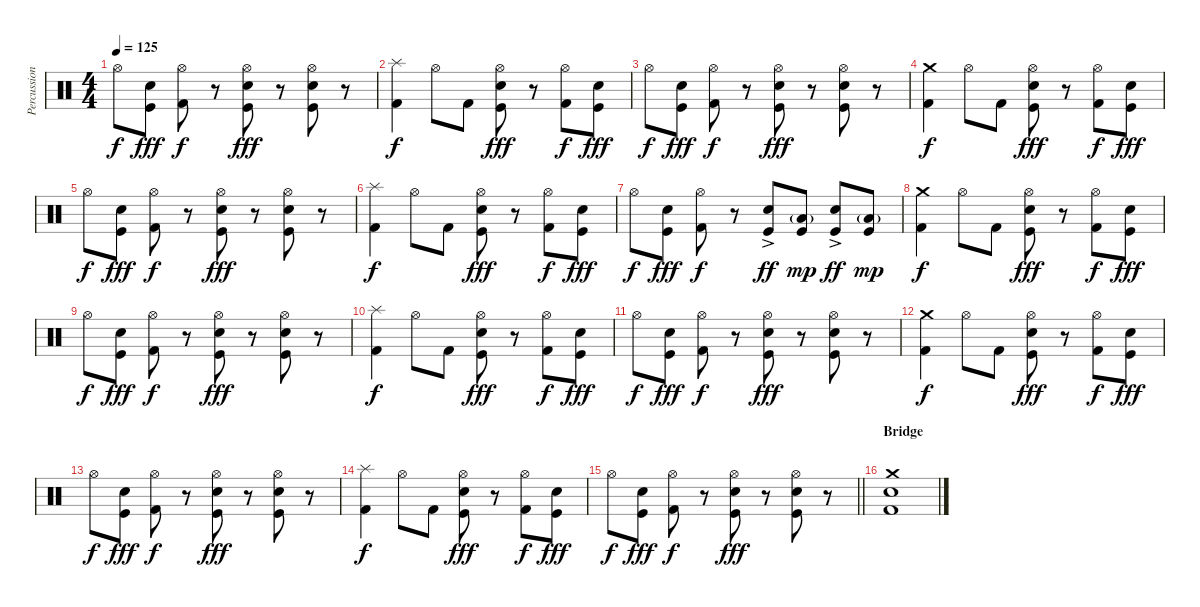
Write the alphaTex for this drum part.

\track ("Percussion" "Percussion") {instrument percussion}
\staff {score}
\articulation defaults
\ts (4 4)
\tempo 125
\clef neutral
\ks c "Hi-Hat (open)".8{dy f}
("Electric Snare (hit)" "Kick (hit)").8{dy fff} ("Hi-Hat (open)" "Kick (hit) 2").8{dy f} r.8 ("Hi-Hat (open)" "Electric Snare (hit)" "Kick (hit)").8{dy fff} r.8 ("Hi-Hat (open)" "Electric Snare (hit)" "Kick (hit)").8 r.8 |
("Splash (hit)" "Kick (hit) 2").4{dy f} "Hi-Hat (open)".8 "Kick (hit) 2".8 ("Hi-Hat (open)" "Electric Snare (hit)" "Kick (hit)").8{dy fff} r.8 ("Hi-Hat (open)" "Kick (hit) 2").8{dy f} ("Electric Snare (hit)" "Kick (hit)").8{dy fff} |
"Hi-Hat (open)".8{dy f} ("Electric Snare (hit)" "Kick (hit)").8{dy fff} ("Hi-Hat (open)" "Kick (hit) 2").8{dy f} r.8 ("Hi-Hat (open)" "Electric Snare (hit)" "Kick (hit)").8{dy fff} r.8 ("Hi-Hat (open)" "Electric Snare (hit)" "Kick (hit)").8 r.8 |
("Crash medium (hit)" "Kick (hit) 2").4{dy f} "Hi-Hat (open)".8 "Kick (hit) 2".8 ("Hi-Hat (open)" "Electric Snare (hit)" "Kick (hit)").8{dy fff} r.8 ("Hi-Hat (open)" "Kick (hit) 2").8{dy f} ("Electric Snare (hit)" "Kick (hit)").8{dy fff} |
"Hi-Hat (open)".8{dy f} ("Electric Snare (hit)" "Kick (hit)").8{dy fff} ("Hi-Hat (open)" "Kick (hit) 2").8{dy f} r.8 ("Hi-Hat (open)" "Electric Snare (hit)" "Kick (hit)").8{dy fff} r.8 ("Hi-Hat (open)" "Electric Snare (hit)" "Kick (hit)").8 r.8 |
("Splash (hit)" "Kick (hit) 2").4{dy f} "Hi-Hat (open)".8 "Kick (hit) 2".8 ("Hi-Hat (open)" "Electric Snare (hit)" "Kick (hit)").8{dy fff} r.8 ("Hi-Hat (open)" "Kick (hit) 2").8{dy f} ("Electric Snare (hit)" "Kick (hit)").8{dy fff} |
"Hi-Hat (open)".8{dy f} ("Electric Snare (hit)" "Kick (hit)").8{dy fff} ("Hi-Hat (open)" "Kick (hit) 2").8{dy f} r.8 ("Snare (hit) 2"{ac} "Kick (hit)").8{dy ff} ("Low Floor Tom (hit)"{g} "Kick (hit)").8{dy mp} ("Snare (hit) 2"{ac} "Kick (hit)").8{dy ff} ("Low Floor Tom (hit)"{g} "Kick (hit)").8{dy mp} |
("Crash medium (hit)" "Kick (hit) 2").4{dy f} "Hi-Hat (open)".8 "Kick (hit) 2".8 ("Hi-Hat (open)" "Electric Snare (hit)" "Kick (hit)").8{dy fff} r.8 ("Hi-Hat (open)" "Kick (hit) 2").8{dy f} ("Electric Snare (hit)" "Kick (hit)").8{dy fff} |
"Hi-Hat (open)".8{dy f} ("Electric Snare (hit)" "Kick (hit)").8{dy fff} ("Hi-Hat (open)" "Kick (hit) 2").8{dy f} r.8 ("Hi-Hat (open)" "Electric Snare (hit)" "Kick (hit)").8{dy fff} r.8 ("Hi-Hat (open)" "Electric Snare (hit)" "Kick (hit)").8 r.8 |
("Splash (hit)" "Kick (hit) 2").4{dy f} "Hi-Hat (open)".8 "Kick (hit) 2".8 ("Hi-Hat (open)" "Electric Snare (hit)" "Kick (hit)").8{dy fff} r.8 ("Hi-Hat (open)" "Kick (hit) 2").8{dy f} ("Electric Snare (hit)" "Kick (hit)").8{dy fff} |
"Hi-Hat (open)".8{dy f} ("Electric Snare (hit)" "Kick (hit)").8{dy fff} ("Hi-Hat (open)" "Kick (hit) 2").8{dy f} r.8 ("Hi-Hat (open)" "Electric Snare (hit)" "Kick (hit)").8{dy fff} r.8 ("Hi-Hat (open)" "Electric Snare (hit)" "Kick (hit)").8 r.8 |
("Crash medium (hit)" "Kick (hit) 2").4{dy f} "Hi-Hat (open)".8 "Kick (hit) 2".8 ("Hi-Hat (open)" "Electric Snare (hit)" "Kick (hit)").8{dy fff} r.8 ("Hi-Hat (open)" "Kick (hit) 2").8{dy f} ("Electric Snare (hit)" "Kick (hit)").8{dy fff} |
"Hi-Hat (open)".8{dy f} ("Electric Snare (hit)" "Kick (hit)").8{dy fff} ("Hi-Hat (open)" "Kick (hit) 2").8{dy f} r.8 ("Hi-Hat (open)" "Electric Snare (hit)" "Kick (hit)").8{dy fff} r.8 ("Hi-Hat (open)" "Electric Snare (hit)" "Kick (hit)").8 r.8 |
("Splash (hit)" "Kick (hit) 2").4{dy f} "Hi-Hat (open)".8 "Kick (hit) 2".8 ("Hi-Hat (open)" "Electric Snare (hit)" "Kick (hit)").8{dy fff} r.8 ("Hi-Hat (open)" "Kick (hit) 2").8{dy f} ("Electric Snare (hit)" "Kick (hit)").8{dy fff} |
\barLineRight lightlight "Hi-Hat (open)".8{dy f}
("Electric Snare (hit)" "Kick (hit)").8{dy fff} ("Hi-Hat (open)" "Kick (hit) 2").8{dy f} r.8 ("Hi-Hat (open)" "Electric Snare (hit)" "Kick (hit)").8{dy fff} r.8 ("Hi-Hat (open)" "Electric Snare (hit)" "Kick (hit)").8 r.8 |
\section ("" "Bridge")
("Crash medium (hit)" "Snare (hit) 2" "Kick (hit) 2").1
